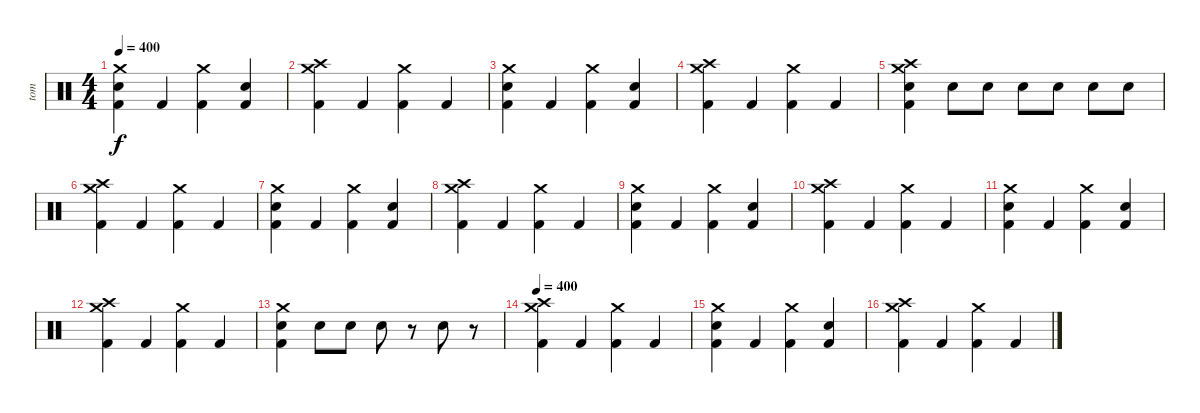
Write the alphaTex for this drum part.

\track ("tom" "tom") {instrument percussion}
\staff {score}
\articulation defaults
\ts (4 4)
\tempo 400
\clef neutral
\ks c
("Crash medium (hit)" "Electric Snare (hit)" "Kick (hit) 2").4{dy f} "Kick (hit) 2".4 ("Crash medium (hit)" "Kick (hit) 2").4 ("Electric Snare (hit)" "Kick (hit) 2").4 |
("Crash high (hit)" "Crash medium (hit)" "Kick (hit) 2").4 "Kick (hit) 2".4 ("Crash medium (hit)" "Kick (hit) 2").4 "Kick (hit) 2".4 |
("Crash medium (hit)" "Electric Snare (hit)" "Kick (hit) 2").4 "Kick (hit) 2".4 ("Crash medium (hit)" "Kick (hit) 2").4 ("Electric Snare (hit)" "Kick (hit) 2").4 |
("Crash high (hit)" "Crash medium (hit)" "Kick (hit) 2").4 "Kick (hit) 2".4 ("Crash medium (hit)" "Kick (hit) 2").4 "Kick (hit) 2".4 |
("Crash high (hit)" "Crash medium (hit)" "Electric Snare (hit)" "Kick (hit) 2").4 "Electric Snare (hit)".8 "Electric Snare (hit)".8 "Electric Snare (hit)".8 "Electric Snare (hit)".8 "Electric Snare (hit)".8 "Electric Snare (hit)".8 |
("Crash high (hit)" "Crash medium (hit)" "Kick (hit) 2").4 "Kick (hit) 2".4 ("Crash medium (hit)" "Kick (hit) 2").4 "Kick (hit) 2".4 |
("Crash medium (hit)" "Electric Snare (hit)" "Kick (hit) 2").4 "Kick (hit) 2".4 ("Crash medium (hit)" "Kick (hit) 2").4 ("Electric Snare (hit)" "Kick (hit) 2").4 |
("Crash high (hit)" "Crash medium (hit)" "Kick (hit) 2").4 "Kick (hit) 2".4 ("Crash medium (hit)" "Kick (hit) 2").4 "Kick (hit) 2".4 |
("Crash medium (hit)" "Electric Snare (hit)" "Kick (hit) 2").4 "Kick (hit) 2".4 ("Crash medium (hit)" "Kick (hit) 2").4 ("Electric Snare (hit)" "Kick (hit) 2").4 |
("Crash high (hit)" "Crash medium (hit)" "Kick (hit) 2").4 "Kick (hit) 2".4 ("Crash medium (hit)" "Kick (hit) 2").4 "Kick (hit) 2".4 |
("Crash medium (hit)" "Electric Snare (hit)" "Kick (hit) 2").4 "Kick (hit) 2".4 ("Crash medium (hit)" "Kick (hit) 2").4 ("Electric Snare (hit)" "Kick (hit) 2").4 |
("Crash high (hit)" "Crash medium (hit)" "Kick (hit) 2").4 "Kick (hit) 2".4 ("Crash medium (hit)" "Kick (hit) 2").4 "Kick (hit) 2".4 |
("Crash medium (hit)" "Electric Snare (hit)" "Kick (hit) 2").4 "Electric Snare (hit)".8 "Electric Snare (hit)".8 "Electric Snare (hit)".8 r.8 "Electric Snare (hit)".8 r.8 |
\tempo 400
("Crash high (hit)" "Crash medium (hit)" "Kick (hit) 2").4 "Kick (hit) 2".4 ("Crash medium (hit)" "Kick (hit) 2").4 "Kick (hit) 2".4 |
("Crash medium (hit)" "Electric Snare (hit)" "Kick (hit) 2").4 "Kick (hit) 2".4 ("Crash medium (hit)" "Kick (hit) 2").4 ("Electric Snare (hit)" "Kick (hit) 2").4 |
("Crash high (hit)" "Crash medium (hit)" "Kick (hit) 2").4 "Kick (hit) 2".4 ("Crash medium (hit)" "Kick (hit) 2").4 "Kick (hit) 2".4
